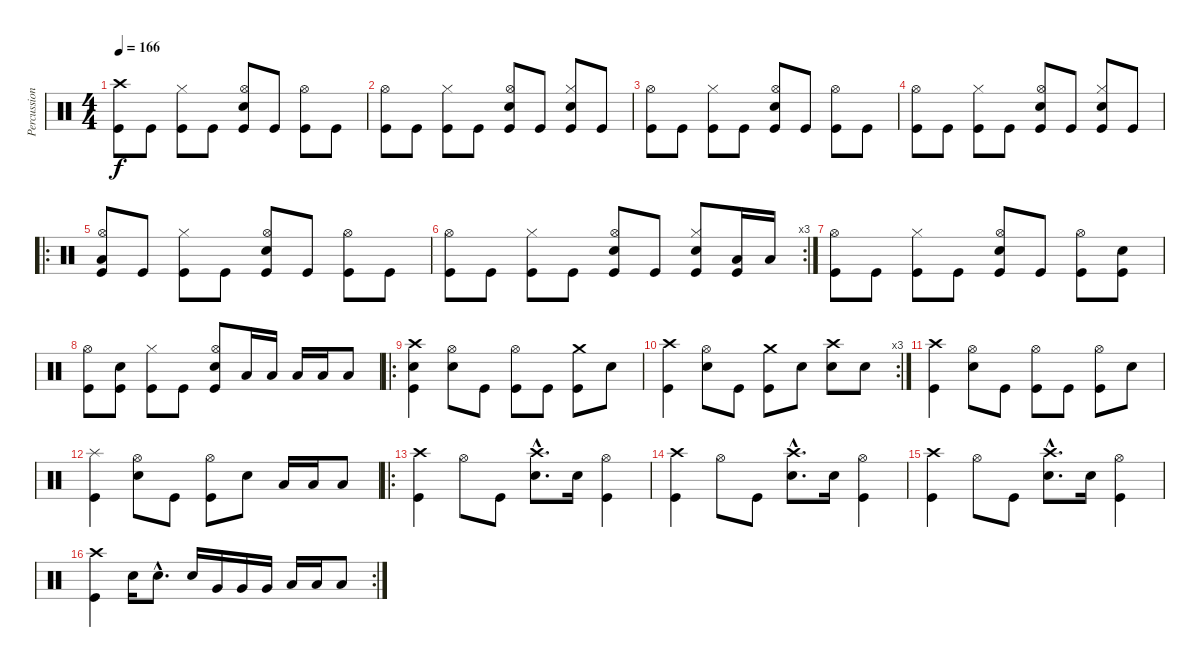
\track ("Percussions" "Percussion") {instrument percussion}
\staff {score}
\articulation defaults
\ts (4 4)
\tempo 166
\clef neutral
\ks c
("Crash high (hit)" "Kick (hit)").8{dy f} "Kick (hit)".8 ("Hi-Hat (closed)" "Kick (hit)").8 "Kick (hit)".8 ("Hi-Hat (open)" "Snare (hit) 2" "Kick (hit)").8 "Kick (hit)".8 ("Hi-Hat (open)" "Kick (hit)").8 "Kick (hit)".8 |
("Hi-Hat (open)" "Kick (hit)").8 "Kick (hit)".8 ("Hi-Hat (closed)" "Kick (hit)").8 "Kick (hit)".8 ("Hi-Hat (open)" "Snare (hit) 2" "Kick (hit)").8 "Kick (hit)".8 ("Hi-Hat (closed)" "Snare (hit) 2" "Kick (hit)").8 "Kick (hit)".8 |
("Hi-Hat (open)" "Kick (hit)").8 "Kick (hit)".8 ("Hi-Hat (closed)" "Kick (hit)").8 "Kick (hit)".8 ("Hi-Hat (open)" "Snare (hit) 2" "Kick (hit)").8 "Kick (hit)".8 ("Hi-Hat (open)" "Kick (hit)").8 "Kick (hit)".8 |
("Hi-Hat (open)" "Kick (hit)").8 "Kick (hit)".8 ("Hi-Hat (closed)" "Kick (hit)").8 "Kick (hit)".8 ("Hi-Hat (open)" "Snare (hit) 2" "Kick (hit)").8 "Kick (hit)".8 ("Hi-Hat (closed)" "Snare (hit) 2" "Kick (hit)").8 "Kick (hit)".8 |
\ro
("Hi-Hat (open)" "Low Floor Tom (hit)" "Kick (hit)").8 "Kick (hit)".8 ("Hi-Hat (closed)" "Kick (hit)").8 "Kick (hit)".8 ("Hi-Hat (open)" "Snare (hit) 2" "Kick (hit)").8 "Kick (hit)".8 ("Hi-Hat (open)" "Kick (hit)").8 "Kick (hit)".8 |
\rc 3
("Hi-Hat (open)" "Kick (hit)").8 "Kick (hit)".8 ("Hi-Hat (closed)" "Kick (hit)").8 "Kick (hit)".8 ("Hi-Hat (open)" "Snare (hit) 2" "Kick (hit)").8 "Kick (hit)".8 ("Hi-Hat (closed)" "Snare (hit) 2" "Kick (hit)").8 ("Low Floor Tom (hit)" "Kick (hit)").16 "Low Floor Tom (hit)".16 |
("Hi-Hat (open)" "Kick (hit)").8 "Kick (hit)".8 ("Hi-Hat (closed)" "Kick (hit)").8 "Kick (hit)".8 ("Hi-Hat (open)" "Snare (hit) 2" "Kick (hit)").8 "Kick (hit)".8 ("Hi-Hat (open)" "Kick (hit)").8 ("Snare (hit) 2" "Kick (hit)").8 |
("Hi-Hat (open)" "Kick (hit)").8 ("Snare (hit) 2" "Kick (hit)").8 ("Hi-Hat (closed)" "Kick (hit)").8 "Kick (hit)".8 ("Hi-Hat (open)" "Snare (hit) 2" "Kick (hit)").8 "Low Floor Tom (hit)".16 "Low Floor Tom (hit)".16 "Low Floor Tom (hit)".16 "Low Floor Tom (hit)".16 "Low Floor Tom (hit)".8 |
\ro
("Crash high (hit)" "Snare (hit) 2" "Kick (hit)").4 ("Hi-Hat (open)" "Snare (hit) 2").8 "Kick (hit)".8 ("Hi-Hat (open)" "Kick (hit)").8 "Kick (hit)".8 ("Crash medium (hit)" "Kick (hit)").8 "Snare (hit) 2".8 |
\rc 3
("Crash high (hit)" "Kick (hit)").4 ("Hi-Hat (open)" "Snare (hit) 2").8 "Kick (hit)".8 ("Crash medium (hit)" "Kick (hit)").8 "Snare (hit) 2".8 ("Crash high (hit)" "Snare (hit) 2").8 "Snare (hit) 2".8 |
("Crash high (hit)" "Kick (hit)").4 ("Hi-Hat (open)" "Snare (hit) 2").8 "Kick (hit)".8 ("Hi-Hat (open)" "Kick (hit)").8 "Kick (hit)".8 ("Hi-Hat (open)" "Kick (hit)").8 "Snare (hit) 2".8 |
("Splash (hit)" "Kick (hit)").4 ("Hi-Hat (open)" "Snare (hit) 2").8 "Kick (hit)".8 ("Hi-Hat (open)" "Kick (hit)").8 "Snare (hit) 2".8 "Low Floor Tom (hit)".16 "Low Floor Tom (hit)".16 "Low Floor Tom (hit)".8 |
\ro
("Crash high (hit)" "Kick (hit)").4 "Hi-Hat (open)".8 "Kick (hit)".8 ("Crash high (hit)"{hac} "Snare (hit) 2"{hac}).8{d} "Snare (hit) 2".16 ("Hi-Hat (open)" "Kick (hit)").4 |
("Crash high (hit)" "Kick (hit)").4 "Hi-Hat (open)".8 "Kick (hit)".8 ("Crash high (hit)"{hac} "Snare (hit) 2"{hac}).8{d} "Snare (hit) 2".16 ("Hi-Hat (open)" "Kick (hit)").4 |
("Crash high (hit)" "Kick (hit)").4 "Hi-Hat (open)".8 "Kick (hit)".8 ("Crash high (hit)"{hac} "Snare (hit) 2"{hac}).8{d} "Snare (hit) 2".16 ("Hi-Hat (open)" "Kick (hit)").4 |
\rc 2
("Crash high (hit)" "Kick (hit)").4 "Snare (hit) 2".16 "Snare (hit) 2"{hac}.8{d} "Snare (hit) 2".16 "Very Low Tom (hit)".16 "Very Low Tom (hit)".16 "Very Low Tom (hit)".16 "Low Floor Tom (hit)".16 "Low Floor Tom (hit)".16 "Low Floor Tom (hit)".8
